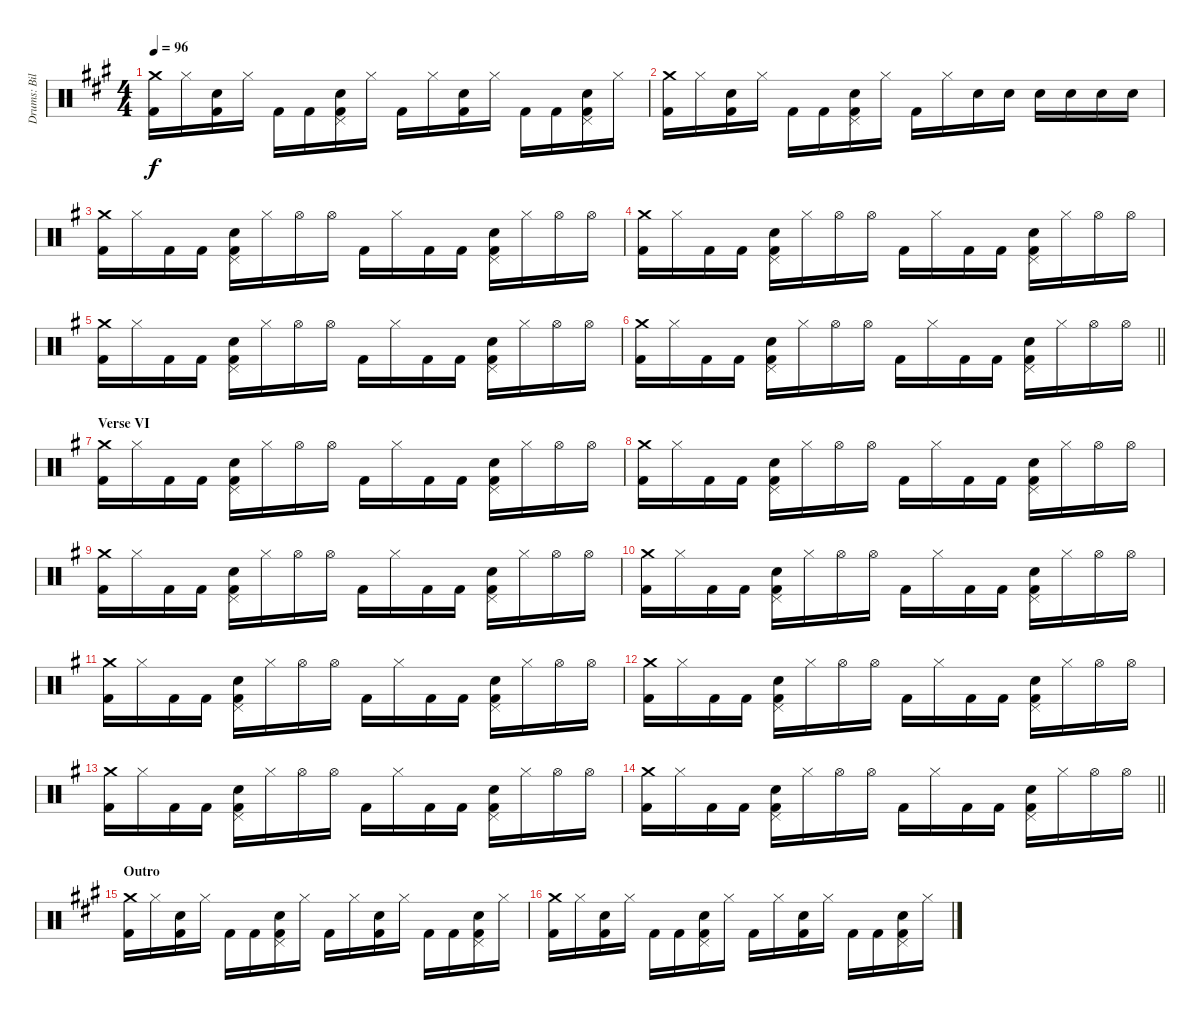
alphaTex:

\track ("Drums: Bill" "Drums: Bil") {instrument percussion}
\staff {score}
\articulation defaults
\ts (4 4)
\tempo 96
\clef neutral
\ks a
("Crash medium (hit)" "Kick (hit) 2").16{dy f} "Hi-Hat (closed)".16 ("Snare (hit) 2" "Kick (hit) 2").16 "Hi-Hat (closed)".16 "Kick (hit) 2".16 "Kick (hit) 2".16 ("Pedal Hi-Hat (hit)" "Snare (hit) 2" "Kick (hit) 2").16 "Hi-Hat (closed)".16 "Kick (hit) 2".16 "Hi-Hat (closed)".16 ("Snare (hit) 2" "Kick (hit) 2").16 "Hi-Hat (closed)".16 "Kick (hit) 2".16 "Kick (hit) 2".16 ("Pedal Hi-Hat (hit)" "Snare (hit) 2" "Kick (hit) 2").16 "Hi-Hat (closed)".16 |
("Crash medium (hit)" "Kick (hit) 2").16 "Hi-Hat (closed)".16 ("Snare (hit) 2" "Kick (hit) 2").16 "Hi-Hat (closed)".16 "Kick (hit) 2".16 "Kick (hit) 2".16 ("Pedal Hi-Hat (hit)" "Snare (hit) 2" "Kick (hit) 2").16 "Hi-Hat (closed)".16 "Kick (hit) 2".16 "Hi-Hat (closed)".16 "Snare (hit) 2".16 "Snare (hit) 2".16 "Snare (hit) 2".16 "Snare (hit) 2".16 "Snare (hit) 2".16 "Snare (hit) 2".16 |
\ks g
("Crash medium (hit)" "Kick (hit) 2").16 "Hi-Hat (closed)".16 "Kick (hit) 2".16 "Kick (hit) 2".16 ("Pedal Hi-Hat (hit)" "Snare (hit) 2" "Kick (hit) 2").16 "Hi-Hat (closed)".16 "Hi-Hat (open)".16 "Hi-Hat (open)".16 "Kick (hit) 2".16 "Hi-Hat (closed)".16 "Kick (hit) 2".16 "Kick (hit) 2".16 ("Pedal Hi-Hat (hit)" "Snare (hit) 2" "Kick (hit) 2").16 "Hi-Hat (closed)".16 "Hi-Hat (open)".16 "Hi-Hat (open)".16 |
("Crash medium (hit)" "Kick (hit) 2").16 "Hi-Hat (closed)".16 "Kick (hit) 2".16 "Kick (hit) 2".16 ("Pedal Hi-Hat (hit)" "Snare (hit) 2" "Kick (hit) 2").16 "Hi-Hat (closed)".16 "Hi-Hat (open)".16 "Hi-Hat (open)".16 "Kick (hit) 2".16 "Hi-Hat (closed)".16 "Kick (hit) 2".16 "Kick (hit) 2".16 ("Pedal Hi-Hat (hit)" "Snare (hit) 2" "Kick (hit) 2").16 "Hi-Hat (closed)".16 "Hi-Hat (open)".16 "Hi-Hat (open)".16 |
("Crash medium (hit)" "Kick (hit) 2").16 "Hi-Hat (closed)".16 "Kick (hit) 2".16 "Kick (hit) 2".16 ("Pedal Hi-Hat (hit)" "Snare (hit) 2" "Kick (hit) 2").16 "Hi-Hat (closed)".16 "Hi-Hat (open)".16 "Hi-Hat (open)".16 "Kick (hit) 2".16 "Hi-Hat (closed)".16 "Kick (hit) 2".16 "Kick (hit) 2".16 ("Pedal Hi-Hat (hit)" "Snare (hit) 2" "Kick (hit) 2").16 "Hi-Hat (closed)".16 "Hi-Hat (open)".16 "Hi-Hat (open)".16 |
\barLineRight lightlight
("Crash medium (hit)" "Kick (hit) 2").16 "Hi-Hat (closed)".16 "Kick (hit) 2".16 "Kick (hit) 2".16 ("Pedal Hi-Hat (hit)" "Snare (hit) 2" "Kick (hit) 2").16 "Hi-Hat (closed)".16 "Hi-Hat (open)".16 "Hi-Hat (open)".16 "Kick (hit) 2".16 "Hi-Hat (closed)".16 "Kick (hit) 2".16 "Kick (hit) 2".16 ("Pedal Hi-Hat (hit)" "Snare (hit) 2" "Kick (hit) 2").16 "Hi-Hat (closed)".16 "Hi-Hat (open)".16 "Hi-Hat (open)".16 |
\section ("" "Verse VI")
("Crash medium (hit)" "Kick (hit) 2").16 "Hi-Hat (closed)".16 "Kick (hit) 2".16 "Kick (hit) 2".16 ("Pedal Hi-Hat (hit)" "Snare (hit) 2" "Kick (hit) 2").16 "Hi-Hat (closed)".16 "Hi-Hat (open)".16 "Hi-Hat (open)".16 "Kick (hit) 2".16 "Hi-Hat (closed)".16 "Kick (hit) 2".16 "Kick (hit) 2".16 ("Pedal Hi-Hat (hit)" "Snare (hit) 2" "Kick (hit) 2").16 "Hi-Hat (closed)".16 "Hi-Hat (open)".16 "Hi-Hat (open)".16 |
("Crash medium (hit)" "Kick (hit) 2").16 "Hi-Hat (closed)".16 "Kick (hit) 2".16 "Kick (hit) 2".16 ("Pedal Hi-Hat (hit)" "Snare (hit) 2" "Kick (hit) 2").16 "Hi-Hat (closed)".16 "Hi-Hat (open)".16 "Hi-Hat (open)".16 "Kick (hit) 2".16 "Hi-Hat (closed)".16 "Kick (hit) 2".16 "Kick (hit) 2".16 ("Pedal Hi-Hat (hit)" "Snare (hit) 2" "Kick (hit) 2").16 "Hi-Hat (closed)".16 "Hi-Hat (open)".16 "Hi-Hat (open)".16 |
("Crash medium (hit)" "Kick (hit) 2").16 "Hi-Hat (closed)".16 "Kick (hit) 2".16 "Kick (hit) 2".16 ("Pedal Hi-Hat (hit)" "Snare (hit) 2" "Kick (hit) 2").16 "Hi-Hat (closed)".16 "Hi-Hat (open)".16 "Hi-Hat (open)".16 "Kick (hit) 2".16 "Hi-Hat (closed)".16 "Kick (hit) 2".16 "Kick (hit) 2".16 ("Pedal Hi-Hat (hit)" "Snare (hit) 2" "Kick (hit) 2").16 "Hi-Hat (closed)".16 "Hi-Hat (open)".16 "Hi-Hat (open)".16 |
("Crash medium (hit)" "Kick (hit) 2").16 "Hi-Hat (closed)".16 "Kick (hit) 2".16 "Kick (hit) 2".16 ("Pedal Hi-Hat (hit)" "Snare (hit) 2" "Kick (hit) 2").16 "Hi-Hat (closed)".16 "Hi-Hat (open)".16 "Hi-Hat (open)".16 "Kick (hit) 2".16 "Hi-Hat (closed)".16 "Kick (hit) 2".16 "Kick (hit) 2".16 ("Pedal Hi-Hat (hit)" "Snare (hit) 2" "Kick (hit) 2").16 "Hi-Hat (closed)".16 "Hi-Hat (open)".16 "Hi-Hat (open)".16 |
("Crash medium (hit)" "Kick (hit) 2").16 "Hi-Hat (closed)".16 "Kick (hit) 2".16 "Kick (hit) 2".16 ("Pedal Hi-Hat (hit)" "Snare (hit) 2" "Kick (hit) 2").16 "Hi-Hat (closed)".16 "Hi-Hat (open)".16 "Hi-Hat (open)".16 "Kick (hit) 2".16 "Hi-Hat (closed)".16 "Kick (hit) 2".16 "Kick (hit) 2".16 ("Pedal Hi-Hat (hit)" "Snare (hit) 2" "Kick (hit) 2").16 "Hi-Hat (closed)".16 "Hi-Hat (open)".16 "Hi-Hat (open)".16 |
("Crash medium (hit)" "Kick (hit) 2").16 "Hi-Hat (closed)".16 "Kick (hit) 2".16 "Kick (hit) 2".16 ("Pedal Hi-Hat (hit)" "Snare (hit) 2" "Kick (hit) 2").16 "Hi-Hat (closed)".16 "Hi-Hat (open)".16 "Hi-Hat (open)".16 "Kick (hit) 2".16 "Hi-Hat (closed)".16 "Kick (hit) 2".16 "Kick (hit) 2".16 ("Pedal Hi-Hat (hit)" "Snare (hit) 2" "Kick (hit) 2").16 "Hi-Hat (closed)".16 "Hi-Hat (open)".16 "Hi-Hat (open)".16 |
("Crash medium (hit)" "Kick (hit) 2").16 "Hi-Hat (closed)".16 "Kick (hit) 2".16 "Kick (hit) 2".16 ("Pedal Hi-Hat (hit)" "Snare (hit) 2" "Kick (hit) 2").16 "Hi-Hat (closed)".16 "Hi-Hat (open)".16 "Hi-Hat (open)".16 "Kick (hit) 2".16 "Hi-Hat (closed)".16 "Kick (hit) 2".16 "Kick (hit) 2".16 ("Pedal Hi-Hat (hit)" "Snare (hit) 2" "Kick (hit) 2").16 "Hi-Hat (closed)".16 "Hi-Hat (open)".16 "Hi-Hat (open)".16 |
\barLineRight lightlight
("Crash medium (hit)" "Kick (hit) 2").16 "Hi-Hat (closed)".16 "Kick (hit) 2".16 "Kick (hit) 2".16 ("Pedal Hi-Hat (hit)" "Snare (hit) 2" "Kick (hit) 2").16 "Hi-Hat (closed)".16 "Hi-Hat (open)".16 "Hi-Hat (open)".16 "Kick (hit) 2".16 "Hi-Hat (closed)".16 "Kick (hit) 2".16 "Kick (hit) 2".16 ("Pedal Hi-Hat (hit)" "Snare (hit) 2" "Kick (hit) 2").16 "Hi-Hat (closed)".16 "Hi-Hat (open)".16 "Hi-Hat (open)".16 |
\section ("" "Outro")
\ks a
("Crash medium (hit)" "Kick (hit) 2").16 "Hi-Hat (closed)".16 ("Snare (hit) 2" "Kick (hit) 2").16 "Hi-Hat (closed)".16 "Kick (hit) 2".16 "Kick (hit) 2".16 ("Pedal Hi-Hat (hit)" "Snare (hit) 2" "Kick (hit) 2").16 "Hi-Hat (closed)".16 "Kick (hit) 2".16 "Hi-Hat (closed)".16 ("Snare (hit) 2" "Kick (hit) 2").16 "Hi-Hat (closed)".16 "Kick (hit) 2".16 "Kick (hit) 2".16 ("Pedal Hi-Hat (hit)" "Snare (hit) 2" "Kick (hit) 2").16 "Hi-Hat (closed)".16 |
("Crash medium (hit)" "Kick (hit) 2").16 "Hi-Hat (closed)".16 ("Snare (hit) 2" "Kick (hit) 2").16 "Hi-Hat (closed)".16 "Kick (hit) 2".16 "Kick (hit) 2".16 ("Pedal Hi-Hat (hit)" "Snare (hit) 2" "Kick (hit) 2").16 "Hi-Hat (closed)".16 "Kick (hit) 2".16 "Hi-Hat (closed)".16 ("Snare (hit) 2" "Kick (hit) 2").16 "Hi-Hat (closed)".16 "Kick (hit) 2".16 "Kick (hit) 2".16 ("Pedal Hi-Hat (hit)" "Snare (hit) 2" "Kick (hit) 2").16 "Hi-Hat (closed)".16
